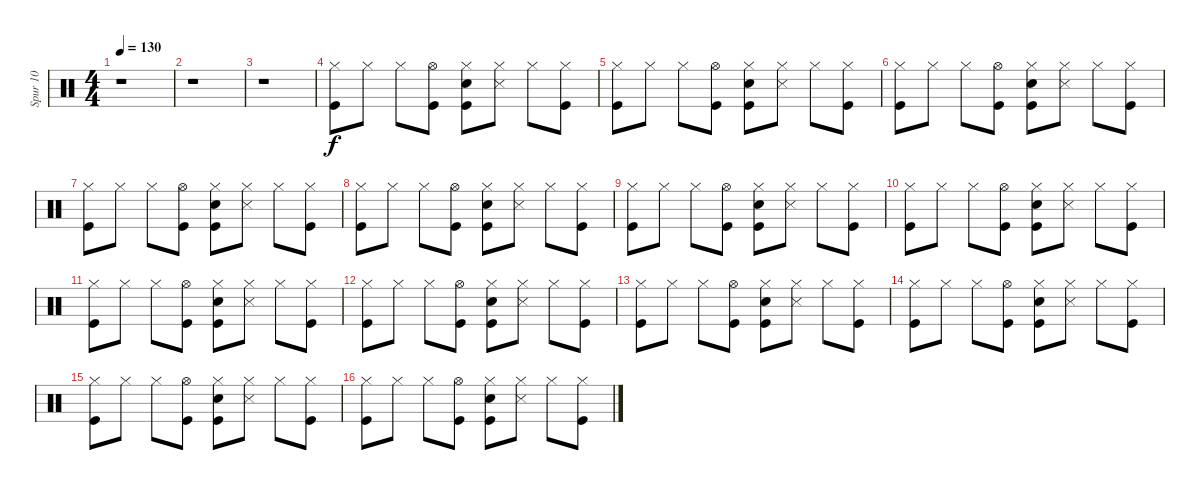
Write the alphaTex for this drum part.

\track ("Spur 10" "Spur 10") {instrument percussion}
\staff {score}
\articulation defaults
\ts (4 4)
\tempo 130
\clef neutral
\ks c
r.1{dy f} |
r.1 |
r.1 |
("Kick (hit)" "Hi-Hat (closed)").8 "Hi-Hat (closed)".8 "Hi-Hat (closed)".8 ("Kick (hit)" "Hi-Hat (open)").8 ("Snare (hit) 2" "Kick (hit)" "Hi-Hat (closed)").8 ("Snare (side stick) 3" "Hi-Hat (closed)").8 "Hi-Hat (closed)".8 ("Kick (hit)" "Hi-Hat (closed)").8 |
("Kick (hit)" "Hi-Hat (closed)").8 "Hi-Hat (closed)".8 "Hi-Hat (closed)".8 ("Kick (hit)" "Hi-Hat (open)").8 ("Snare (hit) 2" "Kick (hit)" "Hi-Hat (closed)").8 ("Snare (side stick) 3" "Hi-Hat (closed)").8 "Hi-Hat (closed)".8 ("Kick (hit)" "Hi-Hat (closed)").8 |
("Kick (hit)" "Hi-Hat (closed)").8 "Hi-Hat (closed)".8 "Hi-Hat (closed)".8 ("Kick (hit)" "Hi-Hat (open)").8 ("Snare (hit) 2" "Kick (hit)" "Hi-Hat (closed)").8 ("Snare (side stick) 3" "Hi-Hat (closed)").8 "Hi-Hat (closed)".8 ("Kick (hit)" "Hi-Hat (closed)").8 |
("Kick (hit)" "Hi-Hat (closed)").8 "Hi-Hat (closed)".8 "Hi-Hat (closed)".8 ("Kick (hit)" "Hi-Hat (open)").8 ("Snare (hit) 2" "Kick (hit)" "Hi-Hat (closed)").8 ("Snare (side stick) 3" "Hi-Hat (closed)").8 "Hi-Hat (closed)".8 ("Kick (hit)" "Hi-Hat (closed)").8 |
("Kick (hit)" "Hi-Hat (closed)").8 "Hi-Hat (closed)".8 "Hi-Hat (closed)".8 ("Kick (hit)" "Hi-Hat (open)").8 ("Snare (hit) 2" "Kick (hit)" "Hi-Hat (closed)").8 ("Snare (side stick) 3" "Hi-Hat (closed)").8 "Hi-Hat (closed)".8 ("Kick (hit)" "Hi-Hat (closed)").8 |
("Kick (hit)" "Hi-Hat (closed)").8 "Hi-Hat (closed)".8 "Hi-Hat (closed)".8 ("Kick (hit)" "Hi-Hat (open)").8 ("Snare (hit) 2" "Kick (hit)" "Hi-Hat (closed)").8 ("Snare (side stick) 3" "Hi-Hat (closed)").8 "Hi-Hat (closed)".8 ("Kick (hit)" "Hi-Hat (closed)").8 |
("Kick (hit)" "Hi-Hat (closed)").8 "Hi-Hat (closed)".8 "Hi-Hat (closed)".8 ("Kick (hit)" "Hi-Hat (open)").8 ("Snare (hit) 2" "Kick (hit)" "Hi-Hat (closed)").8 ("Snare (side stick) 3" "Hi-Hat (closed)").8 "Hi-Hat (closed)".8 ("Kick (hit)" "Hi-Hat (closed)").8 |
("Kick (hit)" "Hi-Hat (closed)").8 "Hi-Hat (closed)".8 "Hi-Hat (closed)".8 ("Kick (hit)" "Hi-Hat (open)").8 ("Snare (hit) 2" "Kick (hit)" "Hi-Hat (closed)").8 ("Snare (side stick) 3" "Hi-Hat (closed)").8 "Hi-Hat (closed)".8 ("Kick (hit)" "Hi-Hat (closed)").8 |
("Kick (hit)" "Hi-Hat (closed)").8 "Hi-Hat (closed)".8 "Hi-Hat (closed)".8 ("Kick (hit)" "Hi-Hat (open)").8 ("Snare (hit) 2" "Kick (hit)" "Hi-Hat (closed)").8 ("Snare (side stick) 3" "Hi-Hat (closed)").8 "Hi-Hat (closed)".8 ("Kick (hit)" "Hi-Hat (closed)").8 |
("Kick (hit)" "Hi-Hat (closed)").8 "Hi-Hat (closed)".8 "Hi-Hat (closed)".8 ("Kick (hit)" "Hi-Hat (open)").8 ("Snare (hit) 2" "Kick (hit)" "Hi-Hat (closed)").8 ("Snare (side stick) 3" "Hi-Hat (closed)").8 "Hi-Hat (closed)".8 ("Kick (hit)" "Hi-Hat (closed)").8 |
("Kick (hit)" "Hi-Hat (closed)").8 "Hi-Hat (closed)".8 "Hi-Hat (closed)".8 ("Kick (hit)" "Hi-Hat (open)").8 ("Snare (hit) 2" "Kick (hit)" "Hi-Hat (closed)").8 ("Snare (side stick) 3" "Hi-Hat (closed)").8 "Hi-Hat (closed)".8 ("Kick (hit)" "Hi-Hat (closed)").8 |
("Kick (hit)" "Hi-Hat (closed)").8 "Hi-Hat (closed)".8 "Hi-Hat (closed)".8 ("Kick (hit)" "Hi-Hat (open)").8 ("Snare (hit) 2" "Kick (hit)" "Hi-Hat (closed)").8 ("Snare (side stick) 3" "Hi-Hat (closed)").8 "Hi-Hat (closed)".8 ("Kick (hit)" "Hi-Hat (closed)").8 |
("Kick (hit)" "Hi-Hat (closed)").8 "Hi-Hat (closed)".8 "Hi-Hat (closed)".8 ("Kick (hit)" "Hi-Hat (open)").8 ("Snare (hit) 2" "Kick (hit)" "Hi-Hat (closed)").8 ("Snare (side stick) 3" "Hi-Hat (closed)").8 "Hi-Hat (closed)".8 ("Kick (hit)" "Hi-Hat (closed)").8
